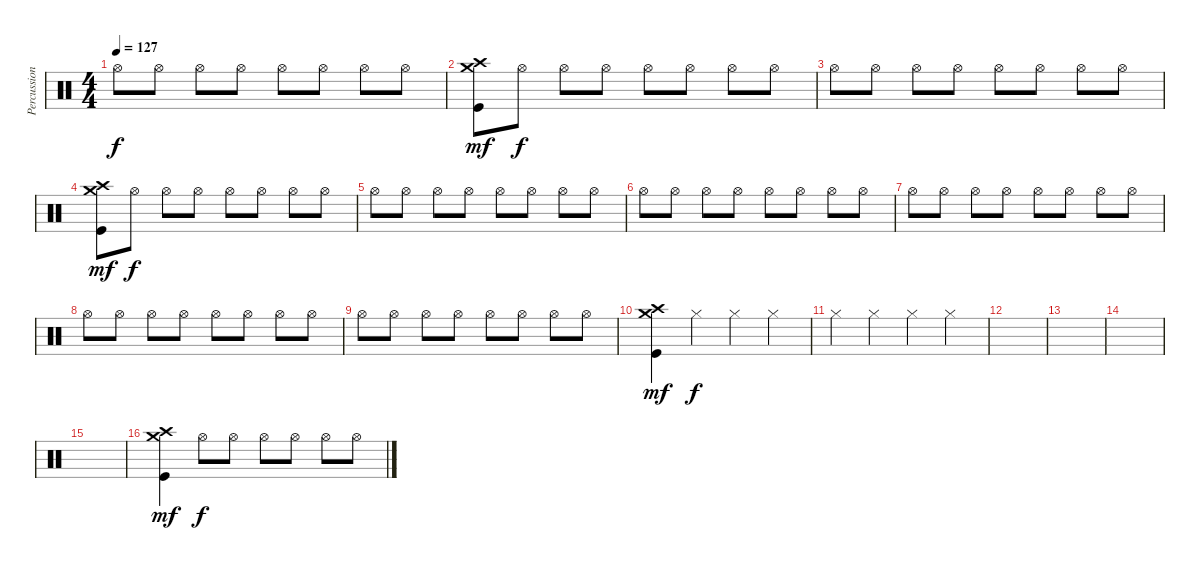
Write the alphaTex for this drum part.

\track ("Percussion" "Percussion") {instrument percussion}
\staff {score}
\articulation defaults
\ts (4 4)
\tempo 127
\clef neutral
\ks c "Hi-Hat (open)".8{dy f} "Hi-Hat (open)".8 "Hi-Hat (open)".8 "Hi-Hat (open)".8 "Hi-Hat (open)".8 "Hi-Hat (open)".8 "Hi-Hat (open)".8 "Hi-Hat (open)".8
|
("Crash high (hit)" "Crash medium (hit)" "Kick (hit)").8{dy mf} "Hi-Hat (open)".8{dy f} "Hi-Hat (open)".8 "Hi-Hat (open)".8 "Hi-Hat (open)".8 "Hi-Hat (open)".8 "Hi-Hat (open)".8 "Hi-Hat (open)".8 |
"Hi-Hat (open)".8 "Hi-Hat (open)".8 "Hi-Hat (open)".8 "Hi-Hat (open)".8 "Hi-Hat (open)".8 "Hi-Hat (open)".8 "Hi-Hat (open)".8 "Hi-Hat (open)".8 |
("Crash high (hit)" "Crash medium (hit)" "Kick (hit)").8{dy mf} "Hi-Hat (open)".8{dy f} "Hi-Hat (open)".8 "Hi-Hat (open)".8 "Hi-Hat (open)".8 "Hi-Hat (open)".8 "Hi-Hat (open)".8 "Hi-Hat (open)".8 |
"Hi-Hat (open)".8 "Hi-Hat (open)".8 "Hi-Hat (open)".8 "Hi-Hat (open)".8 "Hi-Hat (open)".8 "Hi-Hat (open)".8 "Hi-Hat (open)".8 "Hi-Hat (open)".8 |
"Hi-Hat (open)".8 "Hi-Hat (open)".8 "Hi-Hat (open)".8 "Hi-Hat (open)".8 "Hi-Hat (open)".8 "Hi-Hat (open)".8 "Hi-Hat (open)".8 "Hi-Hat (open)".8 |
"Hi-Hat (open)".8 "Hi-Hat (open)".8 "Hi-Hat (open)".8 "Hi-Hat (open)".8 "Hi-Hat (open)".8 "Hi-Hat (open)".8 "Hi-Hat (open)".8 "Hi-Hat (open)".8 |
"Hi-Hat (open)".8 "Hi-Hat (open)".8 "Hi-Hat (open)".8 "Hi-Hat (open)".8 "Hi-Hat (open)".8 "Hi-Hat (open)".8 "Hi-Hat (open)".8 "Hi-Hat (open)".8 |
"Hi-Hat (open)".8 "Hi-Hat (open)".8 "Hi-Hat (open)".8 "Hi-Hat (open)".8 "Hi-Hat (open)".8 "Hi-Hat (open)".8 "Hi-Hat (open)".8 "Hi-Hat (open)".8 |
("Crash medium (hit)" "Crash high (hit)" "Kick (hit)").4{dy mf volume 12} "Hi-Hat (closed)".4{dy f} "Hi-Hat (closed)".4 "Hi-Hat (closed)".4 |
"Hi-Hat (closed)".4 "Hi-Hat (closed)".4 "Hi-Hat (closed)".4 "Hi-Hat (closed)".4 |
|
|
|
|
("Crash medium (hit)" "Crash high (hit)" "Kick (hit)").4{dy mf volume 12} "Hi-Hat (open)".8{dy f} "Hi-Hat (open)".8 "Hi-Hat (open)".8 "Hi-Hat (open)".8 "Hi-Hat (open)".8 "Hi-Hat (open)".8
